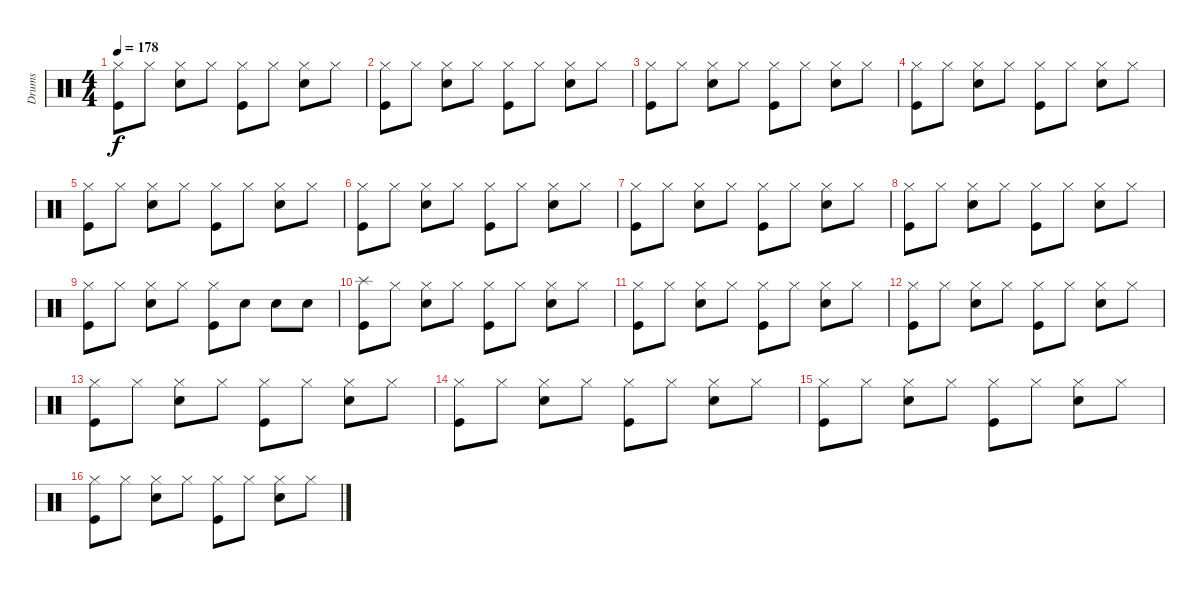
\track ("Drums" "Drums") {instrument percussion}
\staff {score}
\articulation defaults
\ts (4 4)
\tempo 178
\clef neutral
\ks c
("Hi-Hat (closed)" "Kick (hit)").8{dy f} "Hi-Hat (closed)".8 ("Hi-Hat (closed)" "Electric Snare (hit)").8 "Hi-Hat (closed)".8 ("Hi-Hat (closed)" "Kick (hit)").8 "Hi-Hat (closed)".8 ("Hi-Hat (closed)" "Electric Snare (hit)").8 "Hi-Hat (closed)".8 |
("Hi-Hat (closed)" "Kick (hit)").8 "Hi-Hat (closed)".8 ("Hi-Hat (closed)" "Electric Snare (hit)").8 "Hi-Hat (closed)".8 ("Hi-Hat (closed)" "Kick (hit)").8 "Hi-Hat (closed)".8 ("Hi-Hat (closed)" "Electric Snare (hit)").8 "Hi-Hat (closed)".8 |
("Hi-Hat (closed)" "Kick (hit)").8 "Hi-Hat (closed)".8 ("Hi-Hat (closed)" "Electric Snare (hit)").8 "Hi-Hat (closed)".8 ("Hi-Hat (closed)" "Kick (hit)").8 "Hi-Hat (closed)".8 ("Hi-Hat (closed)" "Electric Snare (hit)").8 "Hi-Hat (closed)".8 |
("Hi-Hat (closed)" "Kick (hit)").8 "Hi-Hat (closed)".8 ("Hi-Hat (closed)" "Electric Snare (hit)").8 "Hi-Hat (closed)".8 ("Hi-Hat (closed)" "Kick (hit)").8 "Hi-Hat (closed)".8 ("Hi-Hat (closed)" "Electric Snare (hit)").8 "Hi-Hat (closed)".8 |
("Hi-Hat (closed)" "Kick (hit)").8 "Hi-Hat (closed)".8 ("Hi-Hat (closed)" "Electric Snare (hit)").8 "Hi-Hat (closed)".8 ("Hi-Hat (closed)" "Kick (hit)").8 "Hi-Hat (closed)".8 ("Hi-Hat (closed)" "Electric Snare (hit)").8 "Hi-Hat (closed)".8 |
("Hi-Hat (closed)" "Kick (hit)").8 "Hi-Hat (closed)".8 ("Hi-Hat (closed)" "Electric Snare (hit)").8 "Hi-Hat (closed)".8 ("Hi-Hat (closed)" "Kick (hit)").8 "Hi-Hat (closed)".8 ("Hi-Hat (closed)" "Electric Snare (hit)").8 "Hi-Hat (closed)".8 |
("Hi-Hat (closed)" "Kick (hit)").8 "Hi-Hat (closed)".8 ("Hi-Hat (closed)" "Electric Snare (hit)").8 "Hi-Hat (closed)".8 ("Hi-Hat (closed)" "Kick (hit)").8 "Hi-Hat (closed)".8 ("Hi-Hat (closed)" "Electric Snare (hit)").8 "Hi-Hat (closed)".8 |
("Hi-Hat (closed)" "Kick (hit)").8 "Hi-Hat (closed)".8 ("Hi-Hat (closed)" "Electric Snare (hit)").8 "Hi-Hat (closed)".8 ("Hi-Hat (closed)" "Kick (hit)").8 "Hi-Hat (closed)".8 ("Hi-Hat (closed)" "Electric Snare (hit)").8 "Hi-Hat (closed)".8 |
("Hi-Hat (closed)" "Kick (hit)").8 "Hi-Hat (closed)".8 ("Hi-Hat (closed)" "Electric Snare (hit)").8 "Hi-Hat (closed)".8 ("Hi-Hat (closed)" "Kick (hit)").8 "Electric Snare (hit)".8 "Electric Snare (hit)".8 "Electric Snare (hit)".8 |
("Splash (hit)" "Kick (hit)").8 "Hi-Hat (closed)".8 ("Hi-Hat (closed)" "Electric Snare (hit)").8 "Hi-Hat (closed)".8 ("Hi-Hat (closed)" "Kick (hit)").8 "Hi-Hat (closed)".8 ("Hi-Hat (closed)" "Electric Snare (hit)").8 "Hi-Hat (closed)".8 |
("Hi-Hat (closed)" "Kick (hit)").8 "Hi-Hat (closed)".8 ("Hi-Hat (closed)" "Electric Snare (hit)").8 "Hi-Hat (closed)".8 ("Hi-Hat (closed)" "Kick (hit)").8 "Hi-Hat (closed)".8 ("Hi-Hat (closed)" "Electric Snare (hit)").8 "Hi-Hat (closed)".8 |
("Hi-Hat (closed)" "Kick (hit)").8 "Hi-Hat (closed)".8 ("Hi-Hat (closed)" "Electric Snare (hit)").8 "Hi-Hat (closed)".8 ("Hi-Hat (closed)" "Kick (hit)").8 "Hi-Hat (closed)".8 ("Hi-Hat (closed)" "Electric Snare (hit)").8 "Hi-Hat (closed)".8 |
("Hi-Hat (closed)" "Kick (hit)").8 "Hi-Hat (closed)".8 ("Hi-Hat (closed)" "Electric Snare (hit)").8 "Hi-Hat (closed)".8 ("Hi-Hat (closed)" "Kick (hit)").8 "Hi-Hat (closed)".8 ("Hi-Hat (closed)" "Electric Snare (hit)").8 "Hi-Hat (closed)".8 |
("Hi-Hat (closed)" "Kick (hit)").8 "Hi-Hat (closed)".8 ("Hi-Hat (closed)" "Electric Snare (hit)").8 "Hi-Hat (closed)".8 ("Hi-Hat (closed)" "Kick (hit)").8 "Hi-Hat (closed)".8 ("Hi-Hat (closed)" "Electric Snare (hit)").8 "Hi-Hat (closed)".8 |
("Hi-Hat (closed)" "Kick (hit)").8 "Hi-Hat (closed)".8 ("Hi-Hat (closed)" "Electric Snare (hit)").8 "Hi-Hat (closed)".8 ("Hi-Hat (closed)" "Kick (hit)").8 "Hi-Hat (closed)".8 ("Hi-Hat (closed)" "Electric Snare (hit)").8 "Hi-Hat (closed)".8 |
("Hi-Hat (closed)" "Kick (hit)").8 "Hi-Hat (closed)".8 ("Hi-Hat (closed)" "Electric Snare (hit)").8 "Hi-Hat (closed)".8 ("Hi-Hat (closed)" "Kick (hit)").8 "Hi-Hat (closed)".8 ("Hi-Hat (closed)" "Electric Snare (hit)").8 "Hi-Hat (closed)".8
